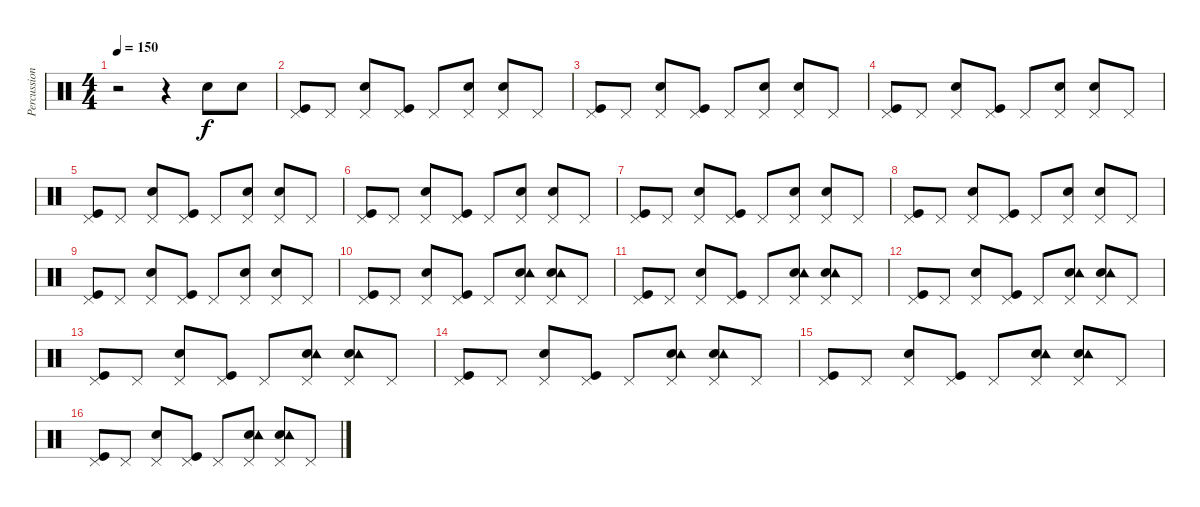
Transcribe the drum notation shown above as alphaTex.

\track ("Percussion" "Percussion") {instrument percussion}
\staff {score}
\articulation defaults
\ts (4 4)
\tempo 150
\clef neutral
\ks c
r.2{dy f} r.4 "Electric Snare (hit)".8 "Electric Snare (hit)".8 |
("Kick (hit)" "Pedal Hi-Hat (hit)").8 "Pedal Hi-Hat (hit)".8 ("Electric Snare (hit)" "Pedal Hi-Hat (hit)").8 ("Kick (hit)" "Pedal Hi-Hat (hit)").8 "Pedal Hi-Hat (hit)".8 ("Electric Snare (hit)" "Pedal Hi-Hat (hit)").8 ("Electric Snare (hit)" "Pedal Hi-Hat (hit)").8 "Pedal Hi-Hat (hit)".8 |
("Kick (hit)" "Pedal Hi-Hat (hit)").8 "Pedal Hi-Hat (hit)".8 ("Electric Snare (hit)" "Pedal Hi-Hat (hit)").8 ("Kick (hit)" "Pedal Hi-Hat (hit)").8 "Pedal Hi-Hat (hit)".8 ("Electric Snare (hit)" "Pedal Hi-Hat (hit)").8 ("Electric Snare (hit)" "Pedal Hi-Hat (hit)").8 "Pedal Hi-Hat (hit)".8 |
("Kick (hit)" "Pedal Hi-Hat (hit)").8 "Pedal Hi-Hat (hit)".8 ("Electric Snare (hit)" "Pedal Hi-Hat (hit)").8 ("Kick (hit)" "Pedal Hi-Hat (hit)").8 "Pedal Hi-Hat (hit)".8 ("Electric Snare (hit)" "Pedal Hi-Hat (hit)").8 ("Electric Snare (hit)" "Pedal Hi-Hat (hit)").8 "Pedal Hi-Hat (hit)".8 |
("Kick (hit)" "Pedal Hi-Hat (hit)").8 "Pedal Hi-Hat (hit)".8 ("Electric Snare (hit)" "Pedal Hi-Hat (hit)").8 ("Kick (hit)" "Pedal Hi-Hat (hit)").8 "Pedal Hi-Hat (hit)".8 ("Electric Snare (hit)" "Pedal Hi-Hat (hit)").8 ("Electric Snare (hit)" "Pedal Hi-Hat (hit)").8 "Pedal Hi-Hat (hit)".8 |
("Kick (hit)" "Pedal Hi-Hat (hit)").8 "Pedal Hi-Hat (hit)".8 ("Electric Snare (hit)" "Pedal Hi-Hat (hit)").8 ("Kick (hit)" "Pedal Hi-Hat (hit)").8 "Pedal Hi-Hat (hit)".8 ("Electric Snare (hit)" "Pedal Hi-Hat (hit)").8 ("Electric Snare (hit)" "Pedal Hi-Hat (hit)").8 "Pedal Hi-Hat (hit)".8 |
("Kick (hit)" "Pedal Hi-Hat (hit)").8 "Pedal Hi-Hat (hit)".8 ("Electric Snare (hit)" "Pedal Hi-Hat (hit)").8 ("Kick (hit)" "Pedal Hi-Hat (hit)").8 "Pedal Hi-Hat (hit)".8 ("Electric Snare (hit)" "Pedal Hi-Hat (hit)").8 ("Electric Snare (hit)" "Pedal Hi-Hat (hit)").8 "Pedal Hi-Hat (hit)".8 |
("Kick (hit)" "Pedal Hi-Hat (hit)").8 "Pedal Hi-Hat (hit)".8 ("Electric Snare (hit)" "Pedal Hi-Hat (hit)").8 ("Kick (hit)" "Pedal Hi-Hat (hit)").8 "Pedal Hi-Hat (hit)".8 ("Electric Snare (hit)" "Pedal Hi-Hat (hit)").8 ("Electric Snare (hit)" "Pedal Hi-Hat (hit)").8 "Pedal Hi-Hat (hit)".8 |
("Kick (hit)" "Pedal Hi-Hat (hit)").8 "Pedal Hi-Hat (hit)".8 ("Electric Snare (hit)" "Pedal Hi-Hat (hit)").8 ("Kick (hit)" "Pedal Hi-Hat (hit)").8 "Pedal Hi-Hat (hit)".8 ("Electric Snare (hit)" "Pedal Hi-Hat (hit)").8 ("Electric Snare (hit)" "Pedal Hi-Hat (hit)").8 "Pedal Hi-Hat (hit)".8 |
("Kick (hit)" "Pedal Hi-Hat (hit)").8 "Pedal Hi-Hat (hit)".8 ("Electric Snare (hit)" "Pedal Hi-Hat (hit)").8 ("Kick (hit)" "Pedal Hi-Hat (hit)").8 "Pedal Hi-Hat (hit)".8 ("Electric Snare (hit)" "Tambourine (hit)" "Pedal Hi-Hat (hit)").8 ("Electric Snare (hit)" "Tambourine (hit)" "Pedal Hi-Hat (hit)").8 "Pedal Hi-Hat (hit)".8 |
("Kick (hit)" "Pedal Hi-Hat (hit)").8 "Pedal Hi-Hat (hit)".8 ("Electric Snare (hit)" "Pedal Hi-Hat (hit)").8 ("Kick (hit)" "Pedal Hi-Hat (hit)").8 "Pedal Hi-Hat (hit)".8 ("Electric Snare (hit)" "Tambourine (hit)" "Pedal Hi-Hat (hit)").8 ("Electric Snare (hit)" "Tambourine (hit)" "Pedal Hi-Hat (hit)").8 "Pedal Hi-Hat (hit)".8 |
("Kick (hit)" "Pedal Hi-Hat (hit)").8 "Pedal Hi-Hat (hit)".8 ("Electric Snare (hit)" "Pedal Hi-Hat (hit)").8 ("Kick (hit)" "Pedal Hi-Hat (hit)").8 "Pedal Hi-Hat (hit)".8 ("Electric Snare (hit)" "Tambourine (hit)" "Pedal Hi-Hat (hit)").8 ("Electric Snare (hit)" "Tambourine (hit)" "Pedal Hi-Hat (hit)").8 "Pedal Hi-Hat (hit)".8 |
("Kick (hit)" "Pedal Hi-Hat (hit)").8 "Pedal Hi-Hat (hit)".8 ("Electric Snare (hit)" "Pedal Hi-Hat (hit)").8 ("Kick (hit)" "Pedal Hi-Hat (hit)").8 "Pedal Hi-Hat (hit)".8 ("Electric Snare (hit)" "Tambourine (hit)" "Pedal Hi-Hat (hit)").8 ("Electric Snare (hit)" "Tambourine (hit)" "Pedal Hi-Hat (hit)").8 "Pedal Hi-Hat (hit)".8 |
("Kick (hit)" "Pedal Hi-Hat (hit)").8 "Pedal Hi-Hat (hit)".8 ("Electric Snare (hit)" "Pedal Hi-Hat (hit)").8 ("Kick (hit)" "Pedal Hi-Hat (hit)").8 "Pedal Hi-Hat (hit)".8 ("Electric Snare (hit)" "Tambourine (hit)" "Pedal Hi-Hat (hit)").8 ("Electric Snare (hit)" "Tambourine (hit)" "Pedal Hi-Hat (hit)").8 "Pedal Hi-Hat (hit)".8 |
("Kick (hit)" "Pedal Hi-Hat (hit)").8 "Pedal Hi-Hat (hit)".8 ("Electric Snare (hit)" "Pedal Hi-Hat (hit)").8 ("Kick (hit)" "Pedal Hi-Hat (hit)").8 "Pedal Hi-Hat (hit)".8 ("Electric Snare (hit)" "Tambourine (hit)" "Pedal Hi-Hat (hit)").8 ("Electric Snare (hit)" "Tambourine (hit)" "Pedal Hi-Hat (hit)").8 "Pedal Hi-Hat (hit)".8 |
("Kick (hit)" "Pedal Hi-Hat (hit)").8 "Pedal Hi-Hat (hit)".8 ("Electric Snare (hit)" "Pedal Hi-Hat (hit)").8 ("Kick (hit)" "Pedal Hi-Hat (hit)").8 "Pedal Hi-Hat (hit)".8 ("Electric Snare (hit)" "Tambourine (hit)" "Pedal Hi-Hat (hit)").8 ("Electric Snare (hit)" "Tambourine (hit)" "Pedal Hi-Hat (hit)").8 "Pedal Hi-Hat (hit)".8
